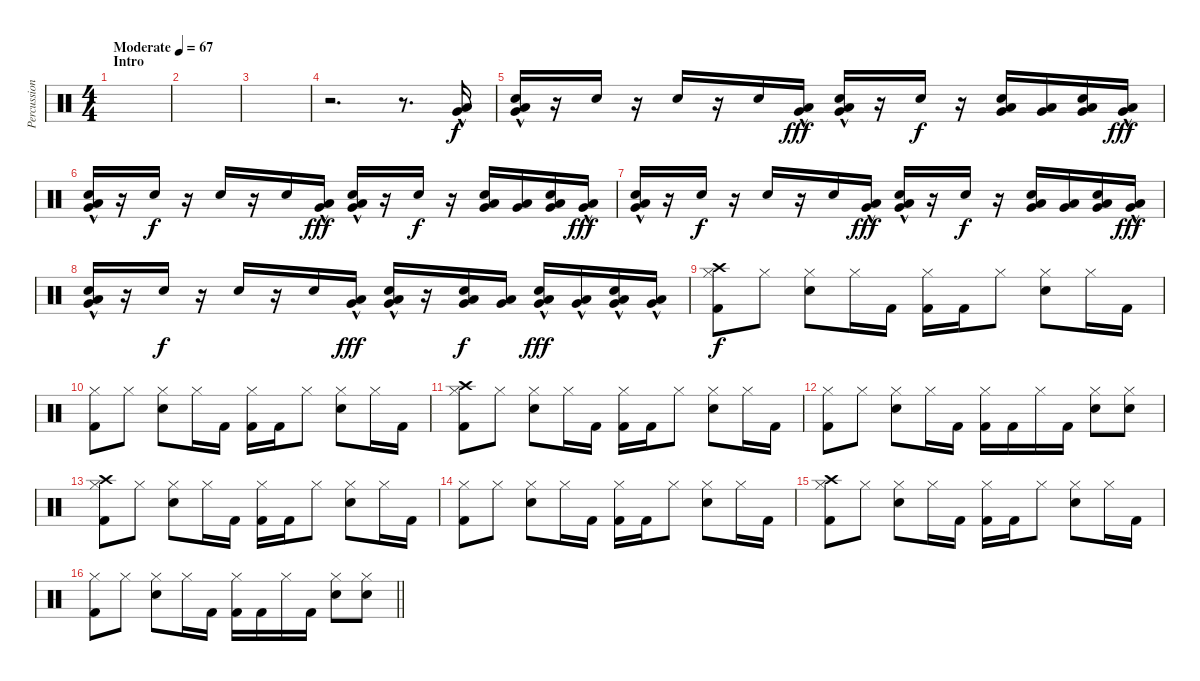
\track ("Percussion" "Percussion") {instrument percussion}
\staff {score}
\articulation defaults
\ts (4 4)
\section ("" "Intro")
\tempo (67 "Moderate")
\clef neutral
\ks c
|
|
|
r.2{d} r.8{d} ("Very Low Tom (hit)"{hac} "Low Floor Tom (hit)"{hac}).16 |
("Very Low Tom (hit)"{hac} "Low Floor Tom (hit)"{hac} "Hand Clap (hit)").16 r.16 "Hand Clap (hit)".16{dy f} r.16 "Hand Clap (hit)".16 r.16 "Hand Clap (hit)".16 ("Very Low Tom (hit)"{hac} "Low Floor Tom (hit)"{hac}).16{dy fff} ("Very Low Tom (hit)"{hac} "Low Floor Tom (hit)"{hac} "Hand Clap (hit)").16 r.16 "Hand Clap (hit)".16{dy f} r.16 ("Very Low Tom (hit)" "Low Floor Tom (hit)" "Hand Clap (hit)").16 ("Very Low Tom (hit)" "Low Floor Tom (hit)").16 ("Very Low Tom (hit)" "Low Floor Tom (hit)" "Hand Clap (hit)").16 ("Very Low Tom (hit)"{hac} "Low Floor Tom (hit)"{hac}).16{dy fff} |
("Very Low Tom (hit)"{hac} "Low Floor Tom (hit)"{hac} "Hand Clap (hit)").16 r.16 "Hand Clap (hit)".16{dy f} r.16 "Hand Clap (hit)".16 r.16 "Hand Clap (hit)".16 ("Very Low Tom (hit)"{hac} "Low Floor Tom (hit)"{hac}).16{dy fff} ("Very Low Tom (hit)"{hac} "Low Floor Tom (hit)"{hac} "Hand Clap (hit)").16 r.16 "Hand Clap (hit)".16{dy f} r.16 ("Very Low Tom (hit)" "Low Floor Tom (hit)" "Hand Clap (hit)").16 ("Very Low Tom (hit)" "Low Floor Tom (hit)").16 ("Very Low Tom (hit)" "Low Floor Tom (hit)" "Hand Clap (hit)").16 ("Very Low Tom (hit)"{hac} "Low Floor Tom (hit)"{hac}).16{dy fff} |
("Very Low Tom (hit)"{hac} "Low Floor Tom (hit)"{hac} "Hand Clap (hit)").16 r.16 "Hand Clap (hit)".16{dy f} r.16 "Hand Clap (hit)".16 r.16 "Hand Clap (hit)".16 ("Very Low Tom (hit)"{hac} "Low Floor Tom (hit)"{hac}).16{dy fff} ("Very Low Tom (hit)"{hac} "Low Floor Tom (hit)"{hac} "Hand Clap (hit)").16 r.16 "Hand Clap (hit)".16{dy f} r.16 ("Very Low Tom (hit)" "Low Floor Tom (hit)" "Hand Clap (hit)").16 ("Very Low Tom (hit)" "Low Floor Tom (hit)").16 ("Very Low Tom (hit)" "Low Floor Tom (hit)" "Hand Clap (hit)").16 ("Very Low Tom (hit)"{hac} "Low Floor Tom (hit)"{hac}).16{dy fff} |
("Very Low Tom (hit)"{hac} "Low Floor Tom (hit)"{hac} "Hand Clap (hit)").16 r.16 "Hand Clap (hit)".16{dy f} r.16 "Hand Clap (hit)".16 r.16 "Hand Clap (hit)".16 ("Very Low Tom (hit)"{hac} "Low Floor Tom (hit)"{hac}).16{dy fff} ("Very Low Tom (hit)"{hac} "Low Floor Tom (hit)"{hac} "Hand Clap (hit)").16 r.16 ("Very Low Tom (hit)" "Low Floor Tom (hit)" "Hand Clap (hit)").16{dy f} ("Very Low Tom (hit)" "Low Floor Tom (hit)").16 ("Very Low Tom (hit)"{hac} "Low Floor Tom (hit)"{hac} "Hand Clap (hit)").16{dy fff} ("Very Low Tom (hit)"{hac} "Low Floor Tom (hit)"{hac}).16 ("Very Low Tom (hit)"{hac} "Low Floor Tom (hit)"{hac} "Hand Clap (hit)").16 ("Very Low Tom (hit)"{hac} "Low Floor Tom (hit)"{hac}).16 |
("Crash high (hit)" "Hi-Hat (closed)" "Kick (hit) 2").8{dy f} "Hi-Hat (closed)".8 ("Hi-Hat (closed)" "Snare (hit) 2").8 "Hi-Hat (closed)".16 "Kick (hit) 2".16 ("Hi-Hat (closed)" "Kick (hit) 2").16 "Kick (hit) 2".16 "Hi-Hat (closed)".8 ("Hi-Hat (closed)" "Snare (hit) 2").8 "Hi-Hat (closed)".16 "Kick (hit) 2".16 |
("Hi-Hat (closed)" "Kick (hit) 2").8 "Hi-Hat (closed)".8 ("Hi-Hat (closed)" "Snare (hit) 2").8 "Hi-Hat (closed)".16 "Kick (hit) 2".16 ("Hi-Hat (closed)" "Kick (hit) 2").16 "Kick (hit) 2".16 "Hi-Hat (closed)".8 ("Hi-Hat (closed)" "Snare (hit) 2").8 "Hi-Hat (closed)".16 "Kick (hit) 2".16 |
("Crash high (hit)" "Hi-Hat (closed)" "Kick (hit) 2").8 "Hi-Hat (closed)".8 ("Hi-Hat (closed)" "Snare (hit) 2").8 "Hi-Hat (closed)".16 "Kick (hit) 2".16 ("Hi-Hat (closed)" "Kick (hit) 2").16 "Kick (hit) 2".16 "Hi-Hat (closed)".8 ("Hi-Hat (closed)" "Snare (hit) 2").8 "Hi-Hat (closed)".16 "Kick (hit) 2".16 |
("Hi-Hat (closed)" "Kick (hit) 2").8 "Hi-Hat (closed)".8 ("Hi-Hat (closed)" "Snare (hit) 2").8 "Hi-Hat (closed)".16 "Kick (hit) 2".16 ("Hi-Hat (closed)" "Kick (hit) 2").16 "Kick (hit) 2".16 "Hi-Hat (closed)".16 "Kick (hit) 2".16 ("Hi-Hat (closed)" "Snare (hit) 2").8 ("Hi-Hat (closed)" "Snare (hit) 2").8 |
("Crash high (hit)" "Hi-Hat (closed)" "Kick (hit) 2").8 "Hi-Hat (closed)".8 ("Hi-Hat (closed)" "Snare (hit) 2").8 "Hi-Hat (closed)".16 "Kick (hit) 2".16 ("Hi-Hat (closed)" "Kick (hit) 2").16 "Kick (hit) 2".16 "Hi-Hat (closed)".8 ("Hi-Hat (closed)" "Snare (hit) 2").8 "Hi-Hat (closed)".16 "Kick (hit) 2".16 |
("Hi-Hat (closed)" "Kick (hit) 2").8 "Hi-Hat (closed)".8 ("Hi-Hat (closed)" "Snare (hit) 2").8 "Hi-Hat (closed)".16 "Kick (hit) 2".16 ("Hi-Hat (closed)" "Kick (hit) 2").16 "Kick (hit) 2".16 "Hi-Hat (closed)".8 ("Hi-Hat (closed)" "Snare (hit) 2").8 "Hi-Hat (closed)".16 "Kick (hit) 2".16 |
("Crash high (hit)" "Hi-Hat (closed)" "Kick (hit) 2").8 "Hi-Hat (closed)".8 ("Hi-Hat (closed)" "Snare (hit) 2").8 "Hi-Hat (closed)".16 "Kick (hit) 2".16 ("Hi-Hat (closed)" "Kick (hit) 2").16 "Kick (hit) 2".16 "Hi-Hat (closed)".8 ("Hi-Hat (closed)" "Snare (hit) 2").8 "Hi-Hat (closed)".16 "Kick (hit) 2".16 |
\barLineRight lightlight
("Hi-Hat (closed)" "Kick (hit) 2").8 "Hi-Hat (closed)".8 ("Hi-Hat (closed)" "Snare (hit) 2").8 "Hi-Hat (closed)".16 "Kick (hit) 2".16 ("Hi-Hat (closed)" "Kick (hit) 2").16 "Kick (hit) 2".16 "Hi-Hat (closed)".16 "Kick (hit) 2".16 ("Hi-Hat (closed)" "Snare (hit) 2").8 ("Hi-Hat (closed)" "Snare (hit) 2").8
